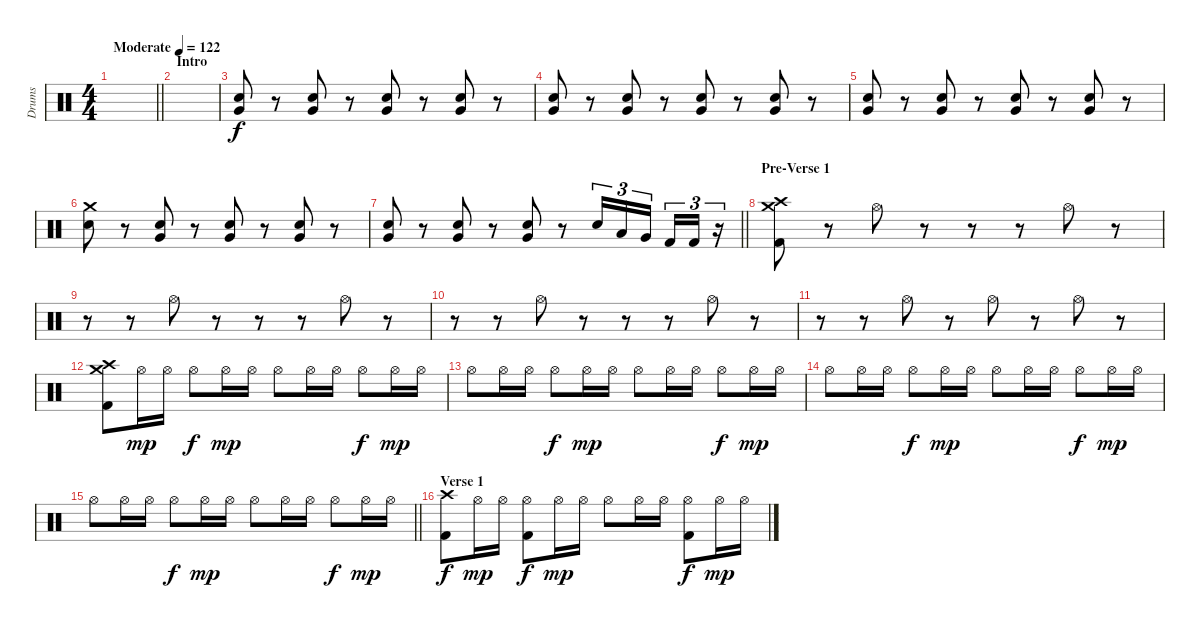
\track ("Drums" "Drums") {instrument percussion}
\staff {score}
\articulation defaults
\ts (4 4)
\tempo (122 "Moderate")
\clef neutral
\barLineRight lightlight
\ks c
|
\section ("" "Intro")
|
("Electric Snare (hit)" "Very Low Tom (hit)").8 r.8 ("Electric Snare (hit)" "Very Low Tom (hit)").8 r.8 ("Electric Snare (hit)" "Very Low Tom (hit)").8 r.8 ("Electric Snare (hit)" "Very Low Tom (hit)").8 r.8 |
("Electric Snare (hit)" "Very Low Tom (hit)").8 r.8 ("Electric Snare (hit)" "Very Low Tom (hit)").8 r.8 ("Electric Snare (hit)" "Very Low Tom (hit)").8 r.8 ("Electric Snare (hit)" "Very Low Tom (hit)").8 r.8 |
("Electric Snare (hit)" "Very Low Tom (hit)").8 r.8 ("Electric Snare (hit)" "Very Low Tom (hit)").8 r.8 ("Electric Snare (hit)" "Very Low Tom (hit)").8 r.8 ("Electric Snare (hit)" "Very Low Tom (hit)").8 r.8 |
("Crash medium (hit)" "Electric Snare (hit)").8 r.8 ("Electric Snare (hit)" "Very Low Tom (hit)").8 r.8 ("Electric Snare (hit)" "Very Low Tom (hit)").8 r.8 ("Electric Snare (hit)" "Very Low Tom (hit)").8 r.8 |
\barLineRight lightlight
("Electric Snare (hit)" "Very Low Tom (hit)").8 r.8 ("Electric Snare (hit)" "Very Low Tom (hit)").8 r.8 ("Electric Snare (hit)" "Very Low Tom (hit)").8 r.8 "Electric Snare (hit)".16{tu (3 2)} "Low Tom (hit)".16{tu (3 2)} "Very Low Tom (hit)".16{tu (3 2) beam splitsecondary} "Kick (hit) 2".16{tu (3 2)} "Kick (hit) 2".16{tu (3 2)} r.16{tu (3 2)} |
\section ("" "Pre-Verse 1")
("Crash medium (hit)" "Crash high (hit)" "Kick (hit) 2").8 r.8 "Hi-Hat (open)".8 r.8 r.8 r.8 "Hi-Hat (open)".8 r.8 |
r.8 r.8 "Hi-Hat (open)".8 r.8 r.8 r.8 "Hi-Hat (open)".8 r.8 |
r.8 r.8 "Hi-Hat (open)".8 r.8 r.8 r.8 "Hi-Hat (open)".8 r.8 |
r.8 r.8 "Hi-Hat (open)".8 r.8 "Hi-Hat (open)".8 r.8 "Hi-Hat (open)".8 r.8 |
("Crash medium (hit)" "Crash high (hit)" "Kick (hit) 2").8 "Hi-Hat (open)".16{dy mp} "Hi-Hat (open)".16 "Hi-Hat (open)".8{dy f} "Hi-Hat (open)".16{dy mp} "Hi-Hat (open)".16 "Hi-Hat (open)".8 "Hi-Hat (open)".16 "Hi-Hat (open)".16 "Hi-Hat (open)".8{dy f} "Hi-Hat (open)".16{dy mp} "Hi-Hat (open)".16 |
"Hi-Hat (open)".8 "Hi-Hat (open)".16 "Hi-Hat (open)".16 "Hi-Hat (open)".8{dy f} "Hi-Hat (open)".16{dy mp} "Hi-Hat (open)".16 "Hi-Hat (open)".8 "Hi-Hat (open)".16 "Hi-Hat (open)".16 "Hi-Hat (open)".8{dy f} "Hi-Hat (open)".16{dy mp} "Hi-Hat (open)".16 |
"Hi-Hat (open)".8 "Hi-Hat (open)".16 "Hi-Hat (open)".16 "Hi-Hat (open)".8{dy f} "Hi-Hat (open)".16{dy mp} "Hi-Hat (open)".16 "Hi-Hat (open)".8 "Hi-Hat (open)".16 "Hi-Hat (open)".16 "Hi-Hat (open)".8{dy f} "Hi-Hat (open)".16{dy mp} "Hi-Hat (open)".16 |
\barLineRight lightlight "Hi-Hat (open)".8 "Hi-Hat (open)".16 "Hi-Hat (open)".16 "Hi-Hat (open)".8{dy f} "Hi-Hat (open)".16{dy mp} "Hi-Hat (open)".16 "Hi-Hat (open)".8 "Hi-Hat (open)".16 "Hi-Hat (open)".16 "Hi-Hat (open)".8{dy f} "Hi-Hat (open)".16{dy mp} "Hi-Hat (open)".16
|
\section ("" "Verse 1")
("Crash high (hit)" "Kick (hit) 2").8{dy f} "Hi-Hat (open)".16{dy mp} "Hi-Hat (open)".16 ("Hi-Hat (open)" "Kick (hit) 2").8{dy f} "Hi-Hat (open)".16{dy mp} "Hi-Hat (open)".16 "Hi-Hat (open)".8 "Hi-Hat (open)".16 "Hi-Hat (open)".16 ("Hi-Hat (open)" "Kick (hit) 2").8{dy f} "Hi-Hat (open)".16{dy mp} "Hi-Hat (open)".16
